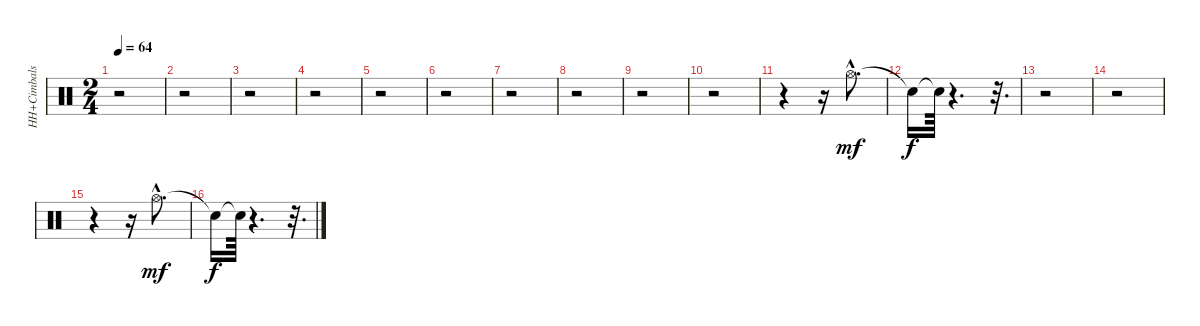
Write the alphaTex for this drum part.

\track ("HH+Cimbals" "HH+Cimbals") {instrument percussion}
\staff {score}
\articulation defaults
\ts (2 4)
\tempo 64
\clef neutral
\ks c
r.2{dy f} |
r.2 |
r.2 |
r.2 |
r.2 |
r.2 |
r.2 |
r.2 |
r.2 |
r.2 |
r.4 r.16 "Hi-Hat (open)"{hac}.8{d dy mf} |
"Snare (hit)"{t}.16{dy f} "Snare (hit)"{t}.64 r.4{d} r.32{d} |
r.2 |
r.2 |
r.4 r.16 "Hi-Hat (open)"{hac}.8{d dy mf} |
"Snare (hit)"{t}.16{dy f} "Snare (hit)"{t}.64 r.4{d} r.32{d}
